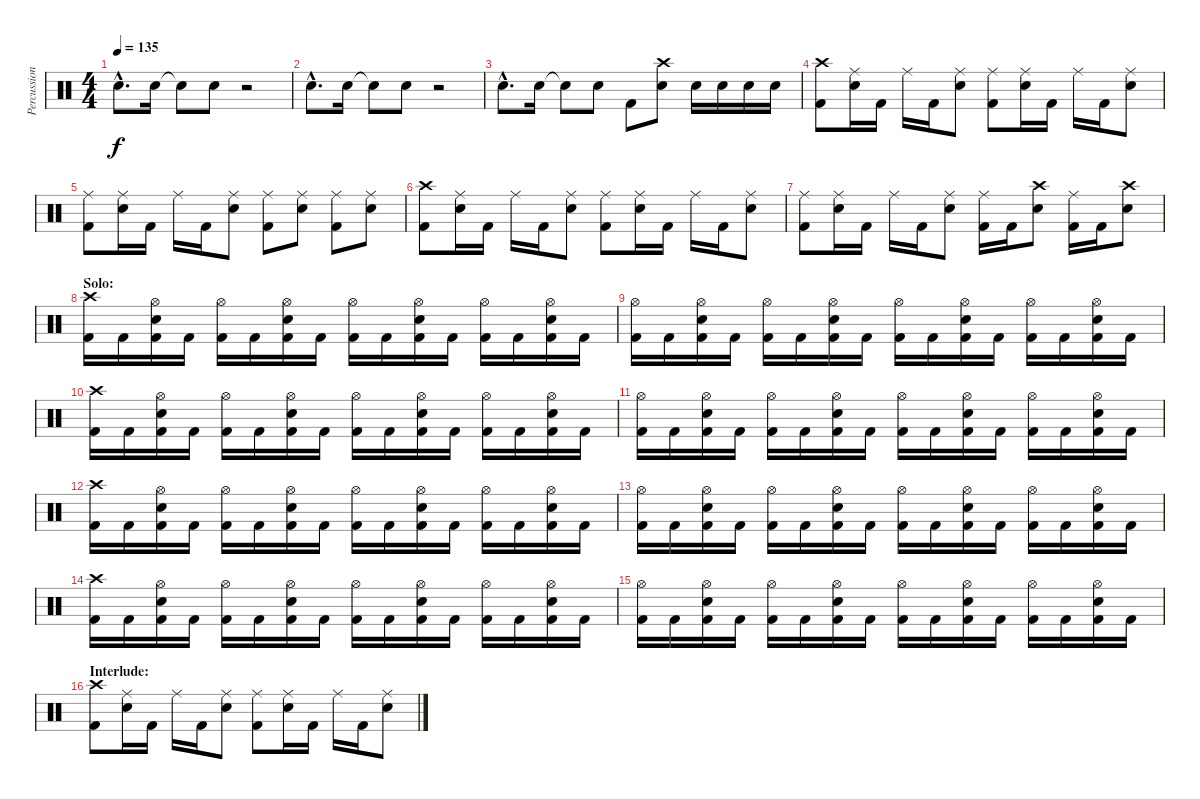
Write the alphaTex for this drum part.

\track ("Percussion" "Percussion") {instrument percussion}
\staff {score}
\articulation defaults
\ts (4 4)
\tempo 135
\clef neutral
\ks c "Electric Snare (hit)"{hac}.8{d dy f} "Electric Snare (hit)".16 "Snare (hit)"{t}.8 "Electric Snare (hit)".8
r.2 |
"Electric Snare (hit)"{hac}.8{d} "Electric Snare (hit)".16 "Snare (hit)"{t}.8 "Electric Snare (hit)".8 r.2 |
"Electric Snare (hit)"{hac}.8{d} "Electric Snare (hit)".16 "Snare (hit)"{t}.8 "Electric Snare (hit)".8 "Kick (hit) 2".8 ("Crash high (hit)" "Electric Snare (hit)").8 "Electric Snare (hit)".16 "Electric Snare (hit)".16 "Electric Snare (hit)".16 "Electric Snare (hit)".16 |
("Crash high (hit)" "Kick (hit) 2").8 ("Ride (middle)" "Electric Snare (hit)").16 "Kick (hit) 2".16 "Ride (middle)".16 "Kick (hit) 2".16 ("Ride (middle)" "Electric Snare (hit)").8 ("Ride (middle)" "Kick (hit) 2").8 ("Ride (middle)" "Electric Snare (hit)").16 "Kick (hit) 2".16 "Ride (middle)".16 "Kick (hit) 2".16 ("Ride (middle)" "Electric Snare (hit)").8 |
("Ride (middle)" "Kick (hit) 2").8 ("Ride (middle)" "Electric Snare (hit)").16 "Kick (hit) 2".16 "Ride (middle)".16 "Kick (hit) 2".16 ("Ride (middle)" "Electric Snare (hit)").8 ("Ride (middle)" "Kick (hit) 2").8 ("Ride (middle)" "Electric Snare (hit)").8 ("Ride (middle)" "Kick (hit) 2").8 ("Ride (middle)" "Electric Snare (hit)").8 |
("Crash high (hit)" "Kick (hit) 2").8 ("Ride (middle)" "Electric Snare (hit)").16 "Kick (hit) 2".16 "Ride (middle)".16 "Kick (hit) 2".16 ("Ride (middle)" "Electric Snare (hit)").8 ("Ride (middle)" "Kick (hit) 2").8 ("Ride (middle)" "Electric Snare (hit)").16 "Kick (hit) 2".16 "Ride (middle)".16 "Kick (hit) 2".16 ("Ride (middle)" "Electric Snare (hit)").8 |
("Ride (middle)" "Kick (hit) 2").8 ("Ride (middle)" "Electric Snare (hit)").16 "Kick (hit) 2".16 "Ride (middle)".16 "Kick (hit) 2".16 ("Ride (middle)" "Electric Snare (hit)").8 ("Ride (middle)" "Kick (hit) 2").16 "Kick (hit) 2".16 ("Crash high (hit)" "Electric Snare (hit)").8 ("Ride (middle)" "Kick (hit) 2").16 "Kick (hit) 2".16 ("Crash high (hit)" "Electric Snare (hit)").8 |
\section ("" "Solo:")
("Crash high (hit)" "Kick (hit) 2").16 "Kick (hit) 2".16 ("Hi-Hat (open)" "Electric Snare (hit)" "Kick (hit) 2").16 "Kick (hit) 2".16 ("Hi-Hat (open)" "Kick (hit) 2").16 "Kick (hit) 2".16 ("Hi-Hat (open)" "Electric Snare (hit)" "Kick (hit) 2").16 "Kick (hit) 2".16 ("Hi-Hat (open)" "Kick (hit) 2").16 "Kick (hit) 2".16 ("Hi-Hat (open)" "Electric Snare (hit)" "Kick (hit) 2").16 "Kick (hit) 2".16 ("Hi-Hat (open)" "Kick (hit) 2").16 "Kick (hit) 2".16 ("Hi-Hat (open)" "Electric Snare (hit)" "Kick (hit) 2").16 "Kick (hit) 2".16 |
("Hi-Hat (open)" "Kick (hit) 2").16 "Kick (hit) 2".16 ("Hi-Hat (open)" "Electric Snare (hit)" "Kick (hit) 2").16 "Kick (hit) 2".16 ("Hi-Hat (open)" "Kick (hit) 2").16 "Kick (hit) 2".16 ("Hi-Hat (open)" "Electric Snare (hit)" "Kick (hit) 2").16 "Kick (hit) 2".16 ("Hi-Hat (open)" "Kick (hit) 2").16 "Kick (hit) 2".16 ("Hi-Hat (open)" "Electric Snare (hit)" "Kick (hit) 2").16 "Kick (hit) 2".16 ("Hi-Hat (open)" "Kick (hit) 2").16 "Kick (hit) 2".16 ("Hi-Hat (open)" "Electric Snare (hit)" "Kick (hit) 2").16 "Kick (hit) 2".16 |
("Crash high (hit)" "Kick (hit) 2").16 "Kick (hit) 2".16 ("Hi-Hat (open)" "Electric Snare (hit)" "Kick (hit) 2").16 "Kick (hit) 2".16 ("Hi-Hat (open)" "Kick (hit) 2").16 "Kick (hit) 2".16 ("Hi-Hat (open)" "Electric Snare (hit)" "Kick (hit) 2").16 "Kick (hit) 2".16 ("Hi-Hat (open)" "Kick (hit) 2").16 "Kick (hit) 2".16 ("Hi-Hat (open)" "Electric Snare (hit)" "Kick (hit) 2").16 "Kick (hit) 2".16 ("Hi-Hat (open)" "Kick (hit) 2").16 "Kick (hit) 2".16 ("Hi-Hat (open)" "Electric Snare (hit)" "Kick (hit) 2").16 "Kick (hit) 2".16 |
("Hi-Hat (open)" "Kick (hit) 2").16 "Kick (hit) 2".16 ("Hi-Hat (open)" "Electric Snare (hit)" "Kick (hit) 2").16 "Kick (hit) 2".16 ("Hi-Hat (open)" "Kick (hit) 2").16 "Kick (hit) 2".16 ("Hi-Hat (open)" "Electric Snare (hit)" "Kick (hit) 2").16 "Kick (hit) 2".16 ("Hi-Hat (open)" "Kick (hit) 2").16 "Kick (hit) 2".16 ("Hi-Hat (open)" "Electric Snare (hit)" "Kick (hit) 2").16 "Kick (hit) 2".16 ("Hi-Hat (open)" "Kick (hit) 2").16 "Kick (hit) 2".16 ("Hi-Hat (open)" "Electric Snare (hit)" "Kick (hit) 2").16 "Kick (hit) 2".16 |
("Crash high (hit)" "Kick (hit) 2").16 "Kick (hit) 2".16 ("Hi-Hat (open)" "Electric Snare (hit)" "Kick (hit) 2").16 "Kick (hit) 2".16 ("Hi-Hat (open)" "Kick (hit) 2").16 "Kick (hit) 2".16 ("Hi-Hat (open)" "Electric Snare (hit)" "Kick (hit) 2").16 "Kick (hit) 2".16 ("Hi-Hat (open)" "Kick (hit) 2").16 "Kick (hit) 2".16 ("Hi-Hat (open)" "Electric Snare (hit)" "Kick (hit) 2").16 "Kick (hit) 2".16 ("Hi-Hat (open)" "Kick (hit) 2").16 "Kick (hit) 2".16 ("Hi-Hat (open)" "Electric Snare (hit)" "Kick (hit) 2").16 "Kick (hit) 2".16 |
("Hi-Hat (open)" "Kick (hit) 2").16 "Kick (hit) 2".16 ("Hi-Hat (open)" "Electric Snare (hit)" "Kick (hit) 2").16 "Kick (hit) 2".16 ("Hi-Hat (open)" "Kick (hit) 2").16 "Kick (hit) 2".16 ("Hi-Hat (open)" "Electric Snare (hit)" "Kick (hit) 2").16 "Kick (hit) 2".16 ("Hi-Hat (open)" "Kick (hit) 2").16 "Kick (hit) 2".16 ("Hi-Hat (open)" "Electric Snare (hit)" "Kick (hit) 2").16 "Kick (hit) 2".16 ("Hi-Hat (open)" "Kick (hit) 2").16 "Kick (hit) 2".16 ("Hi-Hat (open)" "Electric Snare (hit)" "Kick (hit) 2").16 "Kick (hit) 2".16 |
("Crash high (hit)" "Kick (hit) 2").16 "Kick (hit) 2".16 ("Hi-Hat (open)" "Electric Snare (hit)" "Kick (hit) 2").16 "Kick (hit) 2".16 ("Hi-Hat (open)" "Kick (hit) 2").16 "Kick (hit) 2".16 ("Hi-Hat (open)" "Electric Snare (hit)" "Kick (hit) 2").16 "Kick (hit) 2".16 ("Hi-Hat (open)" "Kick (hit) 2").16 "Kick (hit) 2".16 ("Hi-Hat (open)" "Electric Snare (hit)" "Kick (hit) 2").16 "Kick (hit) 2".16 ("Hi-Hat (open)" "Kick (hit) 2").16 "Kick (hit) 2".16 ("Hi-Hat (open)" "Electric Snare (hit)" "Kick (hit) 2").16 "Kick (hit) 2".16 |
("Hi-Hat (open)" "Kick (hit) 2").16 "Kick (hit) 2".16 ("Hi-Hat (open)" "Electric Snare (hit)" "Kick (hit) 2").16 "Kick (hit) 2".16 ("Hi-Hat (open)" "Kick (hit) 2").16 "Kick (hit) 2".16 ("Hi-Hat (open)" "Electric Snare (hit)" "Kick (hit) 2").16 "Kick (hit) 2".16 ("Hi-Hat (open)" "Kick (hit) 2").16 "Kick (hit) 2".16 ("Hi-Hat (open)" "Electric Snare (hit)" "Kick (hit) 2").16 "Kick (hit) 2".16 ("Hi-Hat (open)" "Kick (hit) 2").16 "Kick (hit) 2".16 ("Hi-Hat (open)" "Electric Snare (hit)" "Kick (hit) 2").16 "Kick (hit) 2".16 |
\section ("" "Interlude:")
("Crash high (hit)" "Kick (hit) 2").8 ("Ride (middle)" "Electric Snare (hit)").16 "Kick (hit) 2".16 "Ride (middle)".16 "Kick (hit) 2".16 ("Ride (middle)" "Electric Snare (hit)").8 ("Ride (middle)" "Kick (hit) 2").8 ("Ride (middle)" "Electric Snare (hit)").16 "Kick (hit) 2".16 "Ride (middle)".16 "Kick (hit) 2".16 ("Ride (middle)" "Electric Snare (hit)").8
